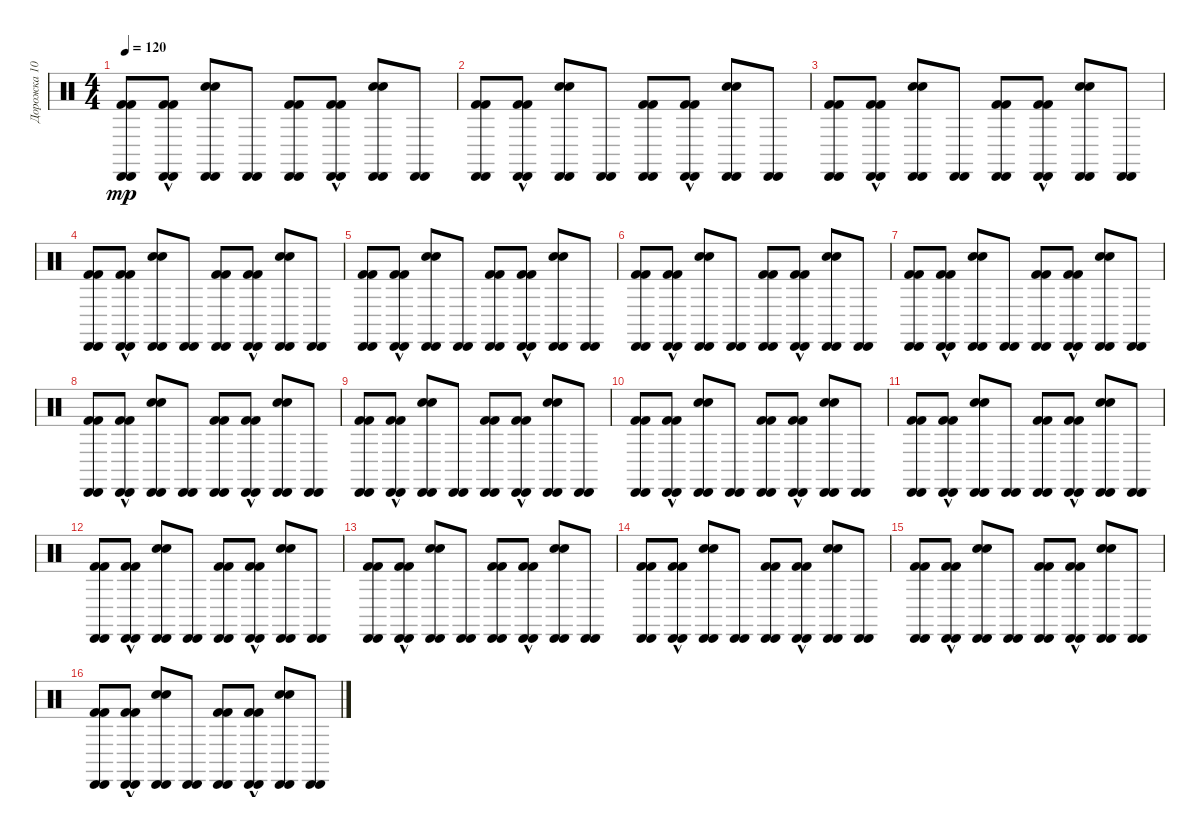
\track ("Дорожка 10" "Дорожка 10") {instrument percussion}
\staff {score}
\articulation defaults
\ts (4 4)
\tempo 120
\clef neutral
\ks c
("Kick (hit) 2" "Cabasa (hit)" "Kick (hit) 2" "Cabasa (hit)").8{dy mp} ("Kick (hit) 2"{hac} "Cabasa (hit)" "Kick (hit) 2"{hac} "Cabasa (hit)").8 ("Snare (hit) 2" "Cabasa (hit)" "Snare (hit) 2" "Cabasa (hit)").8 ("Cabasa (hit)" "Cabasa (hit)").8 ("Kick (hit) 2" "Cabasa (hit)" "Kick (hit) 2" "Cabasa (hit)").8 ("Kick (hit) 2"{hac} "Cabasa (hit)" "Kick (hit) 2"{hac} "Cabasa (hit)").8 ("Snare (hit) 2" "Cabasa (hit)" "Snare (hit) 2" "Cabasa (hit)").8 ("Cabasa (hit)" "Cabasa (hit)").8 |
("Kick (hit) 2" "Cabasa (hit)" "Kick (hit) 2" "Cabasa (hit)").8 ("Kick (hit) 2"{hac} "Cabasa (hit)" "Kick (hit) 2"{hac} "Cabasa (hit)").8 ("Snare (hit) 2" "Cabasa (hit)" "Snare (hit) 2" "Cabasa (hit)").8 ("Cabasa (hit)" "Cabasa (hit)").8 ("Kick (hit) 2" "Cabasa (hit)" "Kick (hit) 2" "Cabasa (hit)").8 ("Kick (hit) 2"{hac} "Cabasa (hit)" "Kick (hit) 2"{hac} "Cabasa (hit)").8 ("Snare (hit) 2" "Cabasa (hit)" "Snare (hit) 2" "Cabasa (hit)").8 ("Cabasa (hit)" "Cabasa (hit)").8 |
("Kick (hit) 2" "Cabasa (hit)" "Kick (hit) 2" "Cabasa (hit)").8 ("Kick (hit) 2"{hac} "Cabasa (hit)" "Kick (hit) 2"{hac} "Cabasa (hit)").8 ("Snare (hit) 2" "Cabasa (hit)" "Snare (hit) 2" "Cabasa (hit)").8 ("Cabasa (hit)" "Cabasa (hit)").8 ("Kick (hit) 2" "Cabasa (hit)" "Kick (hit) 2" "Cabasa (hit)").8 ("Kick (hit) 2"{hac} "Cabasa (hit)" "Kick (hit) 2"{hac} "Cabasa (hit)").8 ("Snare (hit) 2" "Cabasa (hit)" "Snare (hit) 2" "Cabasa (hit)").8 ("Cabasa (hit)" "Cabasa (hit)").8 |
("Kick (hit) 2" "Cabasa (hit)" "Kick (hit) 2" "Cabasa (hit)").8 ("Kick (hit) 2"{hac} "Cabasa (hit)" "Kick (hit) 2"{hac} "Cabasa (hit)").8 ("Snare (hit) 2" "Cabasa (hit)" "Snare (hit) 2" "Cabasa (hit)").8 ("Cabasa (hit)" "Cabasa (hit)").8 ("Kick (hit) 2" "Cabasa (hit)" "Kick (hit) 2" "Cabasa (hit)").8 ("Kick (hit) 2"{hac} "Cabasa (hit)" "Kick (hit) 2"{hac} "Cabasa (hit)").8 ("Snare (hit) 2" "Cabasa (hit)" "Snare (hit) 2" "Cabasa (hit)").8 ("Cabasa (hit)" "Cabasa (hit)").8 |
("Kick (hit) 2" "Cabasa (hit)" "Kick (hit) 2" "Cabasa (hit)").8 ("Kick (hit) 2"{hac} "Cabasa (hit)" "Kick (hit) 2"{hac} "Cabasa (hit)").8 ("Snare (hit) 2" "Cabasa (hit)" "Snare (hit) 2" "Cabasa (hit)").8 ("Cabasa (hit)" "Cabasa (hit)").8 ("Kick (hit) 2" "Cabasa (hit)" "Kick (hit) 2" "Cabasa (hit)").8 ("Kick (hit) 2"{hac} "Cabasa (hit)" "Kick (hit) 2"{hac} "Cabasa (hit)").8 ("Snare (hit) 2" "Cabasa (hit)" "Snare (hit) 2" "Cabasa (hit)").8 ("Cabasa (hit)" "Cabasa (hit)").8 |
("Kick (hit) 2" "Cabasa (hit)" "Kick (hit) 2" "Cabasa (hit)").8 ("Kick (hit) 2"{hac} "Cabasa (hit)" "Kick (hit) 2"{hac} "Cabasa (hit)").8 ("Snare (hit) 2" "Cabasa (hit)" "Snare (hit) 2" "Cabasa (hit)").8 ("Cabasa (hit)" "Cabasa (hit)").8 ("Kick (hit) 2" "Cabasa (hit)" "Kick (hit) 2" "Cabasa (hit)").8 ("Kick (hit) 2"{hac} "Cabasa (hit)" "Kick (hit) 2"{hac} "Cabasa (hit)").8 ("Snare (hit) 2" "Cabasa (hit)" "Snare (hit) 2" "Cabasa (hit)").8 ("Cabasa (hit)" "Cabasa (hit)").8 |
("Kick (hit) 2" "Cabasa (hit)" "Kick (hit) 2" "Cabasa (hit)").8 ("Kick (hit) 2"{hac} "Cabasa (hit)" "Kick (hit) 2"{hac} "Cabasa (hit)").8 ("Snare (hit) 2" "Cabasa (hit)" "Snare (hit) 2" "Cabasa (hit)").8 ("Cabasa (hit)" "Cabasa (hit)").8 ("Kick (hit) 2" "Cabasa (hit)" "Kick (hit) 2" "Cabasa (hit)").8 ("Kick (hit) 2"{hac} "Cabasa (hit)" "Kick (hit) 2"{hac} "Cabasa (hit)").8 ("Snare (hit) 2" "Cabasa (hit)" "Snare (hit) 2" "Cabasa (hit)").8 ("Cabasa (hit)" "Cabasa (hit)").8 |
("Kick (hit) 2" "Cabasa (hit)" "Kick (hit) 2" "Cabasa (hit)").8 ("Kick (hit) 2"{hac} "Cabasa (hit)" "Kick (hit) 2"{hac} "Cabasa (hit)").8 ("Snare (hit) 2" "Cabasa (hit)" "Snare (hit) 2" "Cabasa (hit)").8 ("Cabasa (hit)" "Cabasa (hit)").8 ("Kick (hit) 2" "Cabasa (hit)" "Kick (hit) 2" "Cabasa (hit)").8 ("Kick (hit) 2"{hac} "Cabasa (hit)" "Kick (hit) 2"{hac} "Cabasa (hit)").8 ("Snare (hit) 2" "Cabasa (hit)" "Snare (hit) 2" "Cabasa (hit)").8 ("Cabasa (hit)" "Cabasa (hit)").8 |
("Kick (hit) 2" "Cabasa (hit)" "Kick (hit) 2" "Cabasa (hit)").8 ("Kick (hit) 2"{hac} "Cabasa (hit)" "Kick (hit) 2"{hac} "Cabasa (hit)").8 ("Snare (hit) 2" "Cabasa (hit)" "Snare (hit) 2" "Cabasa (hit)").8 ("Cabasa (hit)" "Cabasa (hit)").8 ("Kick (hit) 2" "Cabasa (hit)" "Kick (hit) 2" "Cabasa (hit)").8 ("Kick (hit) 2"{hac} "Cabasa (hit)" "Kick (hit) 2"{hac} "Cabasa (hit)").8 ("Snare (hit) 2" "Cabasa (hit)" "Snare (hit) 2" "Cabasa (hit)").8 ("Cabasa (hit)" "Cabasa (hit)").8 |
("Kick (hit) 2" "Cabasa (hit)" "Kick (hit) 2" "Cabasa (hit)").8 ("Kick (hit) 2"{hac} "Cabasa (hit)" "Kick (hit) 2"{hac} "Cabasa (hit)").8 ("Snare (hit) 2" "Cabasa (hit)" "Snare (hit) 2" "Cabasa (hit)").8 ("Cabasa (hit)" "Cabasa (hit)").8 ("Kick (hit) 2" "Cabasa (hit)" "Kick (hit) 2" "Cabasa (hit)").8 ("Kick (hit) 2"{hac} "Cabasa (hit)" "Kick (hit) 2"{hac} "Cabasa (hit)").8 ("Snare (hit) 2" "Cabasa (hit)" "Snare (hit) 2" "Cabasa (hit)").8 ("Cabasa (hit)" "Cabasa (hit)").8 |
("Kick (hit) 2" "Cabasa (hit)" "Kick (hit) 2" "Cabasa (hit)").8 ("Kick (hit) 2"{hac} "Cabasa (hit)" "Kick (hit) 2"{hac} "Cabasa (hit)").8 ("Snare (hit) 2" "Cabasa (hit)" "Snare (hit) 2" "Cabasa (hit)").8 ("Cabasa (hit)" "Cabasa (hit)").8 ("Kick (hit) 2" "Cabasa (hit)" "Kick (hit) 2" "Cabasa (hit)").8 ("Kick (hit) 2"{hac} "Cabasa (hit)" "Kick (hit) 2"{hac} "Cabasa (hit)").8 ("Snare (hit) 2" "Cabasa (hit)" "Snare (hit) 2" "Cabasa (hit)").8 ("Cabasa (hit)" "Cabasa (hit)").8 |
("Kick (hit) 2" "Cabasa (hit)" "Kick (hit) 2" "Cabasa (hit)").8 ("Kick (hit) 2"{hac} "Cabasa (hit)" "Kick (hit) 2"{hac} "Cabasa (hit)").8 ("Snare (hit) 2" "Cabasa (hit)" "Snare (hit) 2" "Cabasa (hit)").8 ("Cabasa (hit)" "Cabasa (hit)").8 ("Kick (hit) 2" "Cabasa (hit)" "Kick (hit) 2" "Cabasa (hit)").8 ("Kick (hit) 2"{hac} "Cabasa (hit)" "Kick (hit) 2"{hac} "Cabasa (hit)").8 ("Snare (hit) 2" "Cabasa (hit)" "Snare (hit) 2" "Cabasa (hit)").8 ("Cabasa (hit)" "Cabasa (hit)").8 |
("Kick (hit) 2" "Cabasa (hit)" "Kick (hit) 2" "Cabasa (hit)").8 ("Kick (hit) 2"{hac} "Cabasa (hit)" "Kick (hit) 2"{hac} "Cabasa (hit)").8 ("Snare (hit) 2" "Cabasa (hit)" "Snare (hit) 2" "Cabasa (hit)").8 ("Cabasa (hit)" "Cabasa (hit)").8 ("Kick (hit) 2" "Cabasa (hit)" "Kick (hit) 2" "Cabasa (hit)").8 ("Kick (hit) 2"{hac} "Cabasa (hit)" "Kick (hit) 2"{hac} "Cabasa (hit)").8 ("Snare (hit) 2" "Cabasa (hit)" "Snare (hit) 2" "Cabasa (hit)").8 ("Cabasa (hit)" "Cabasa (hit)").8 |
("Kick (hit) 2" "Cabasa (hit)" "Kick (hit) 2" "Cabasa (hit)").8 ("Kick (hit) 2"{hac} "Cabasa (hit)" "Kick (hit) 2"{hac} "Cabasa (hit)").8 ("Snare (hit) 2" "Cabasa (hit)" "Snare (hit) 2" "Cabasa (hit)").8 ("Cabasa (hit)" "Cabasa (hit)").8 ("Kick (hit) 2" "Cabasa (hit)" "Kick (hit) 2" "Cabasa (hit)").8 ("Kick (hit) 2"{hac} "Cabasa (hit)" "Kick (hit) 2"{hac} "Cabasa (hit)").8 ("Snare (hit) 2" "Cabasa (hit)" "Snare (hit) 2" "Cabasa (hit)").8 ("Cabasa (hit)" "Cabasa (hit)").8 |
("Kick (hit) 2" "Cabasa (hit)" "Kick (hit) 2" "Cabasa (hit)").8 ("Kick (hit) 2"{hac} "Cabasa (hit)" "Kick (hit) 2"{hac} "Cabasa (hit)").8 ("Snare (hit) 2" "Cabasa (hit)" "Snare (hit) 2" "Cabasa (hit)").8 ("Cabasa (hit)" "Cabasa (hit)").8 ("Kick (hit) 2" "Cabasa (hit)" "Kick (hit) 2" "Cabasa (hit)").8 ("Kick (hit) 2"{hac} "Cabasa (hit)" "Kick (hit) 2"{hac} "Cabasa (hit)").8 ("Snare (hit) 2" "Cabasa (hit)" "Snare (hit) 2" "Cabasa (hit)").8 ("Cabasa (hit)" "Cabasa (hit)").8 |
("Kick (hit) 2" "Cabasa (hit)" "Kick (hit) 2" "Cabasa (hit)").8 ("Kick (hit) 2"{hac} "Cabasa (hit)" "Kick (hit) 2"{hac} "Cabasa (hit)").8 ("Snare (hit) 2" "Cabasa (hit)" "Snare (hit) 2" "Cabasa (hit)").8 ("Cabasa (hit)" "Cabasa (hit)").8 ("Kick (hit) 2" "Cabasa (hit)" "Kick (hit) 2" "Cabasa (hit)").8 ("Kick (hit) 2"{hac} "Cabasa (hit)" "Kick (hit) 2"{hac} "Cabasa (hit)").8 ("Snare (hit) 2" "Cabasa (hit)" "Snare (hit) 2" "Cabasa (hit)").8 ("Cabasa (hit)" "Cabasa (hit)").8
